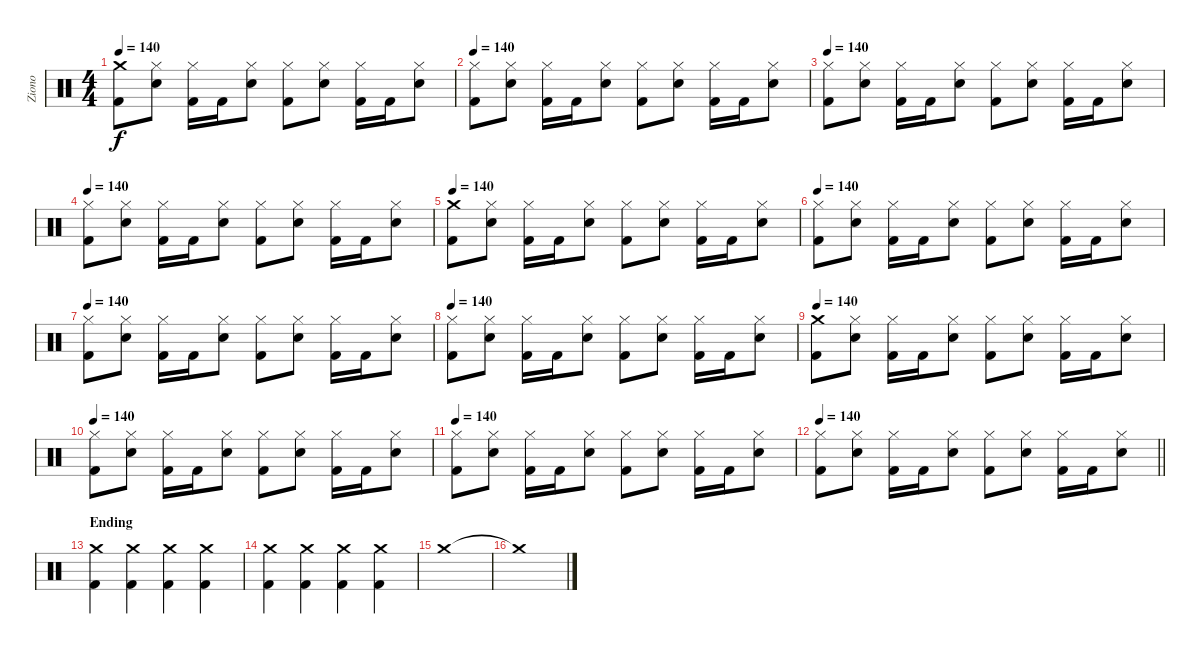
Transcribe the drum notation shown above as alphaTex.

\track ("Ziono" "Ziono") {instrument percussion}
\staff {score}
\articulation defaults
\ts (4 4)
\tempo 140
\clef neutral
\ks c
("Kick (hit) 2" "Crash medium (hit)").8{dy f} ("Hi-Hat (closed)" "Snare (hit) 2").8 ("Hi-Hat (closed)" "Kick (hit) 2").16 "Kick (hit) 2".16 ("Hi-Hat (closed)" "Snare (hit) 2").8 ("Hi-Hat (closed)" "Kick (hit) 2").8 ("Hi-Hat (closed)" "Snare (hit) 2").8 ("Hi-Hat (closed)" "Kick (hit) 2").16 "Kick (hit) 2".16 ("Hi-Hat (closed)" "Snare (hit) 2").8 |
\tempo 140
("Hi-Hat (closed)" "Kick (hit) 2").8 ("Hi-Hat (closed)" "Snare (hit) 2").8 ("Hi-Hat (closed)" "Kick (hit) 2").16 "Kick (hit) 2".16 ("Hi-Hat (closed)" "Snare (hit) 2").8 ("Hi-Hat (closed)" "Kick (hit) 2").8 ("Hi-Hat (closed)" "Snare (hit) 2").8 ("Hi-Hat (closed)" "Kick (hit) 2").16 "Kick (hit) 2".16 ("Hi-Hat (closed)" "Snare (hit) 2").8 |
\tempo 140
("Hi-Hat (closed)" "Kick (hit) 2").8 ("Hi-Hat (closed)" "Snare (hit) 2").8 ("Hi-Hat (closed)" "Kick (hit) 2").16 "Kick (hit) 2".16 ("Hi-Hat (closed)" "Snare (hit) 2").8 ("Hi-Hat (closed)" "Kick (hit) 2").8 ("Hi-Hat (closed)" "Snare (hit) 2").8 ("Hi-Hat (closed)" "Kick (hit) 2").16 "Kick (hit) 2".16 ("Hi-Hat (closed)" "Snare (hit) 2").8 |
\tempo 140
("Hi-Hat (closed)" "Kick (hit) 2").8 ("Hi-Hat (closed)" "Snare (hit) 2").8 ("Hi-Hat (closed)" "Kick (hit) 2").16 "Kick (hit) 2".16 ("Hi-Hat (closed)" "Snare (hit) 2").8 ("Hi-Hat (closed)" "Kick (hit) 2").8 ("Hi-Hat (closed)" "Snare (hit) 2").8 ("Hi-Hat (closed)" "Kick (hit) 2").16 "Kick (hit) 2".16 ("Hi-Hat (closed)" "Snare (hit) 2").8 |
\tempo 140
("Kick (hit) 2" "Crash medium (hit)").8 ("Hi-Hat (closed)" "Snare (hit) 2").8 ("Hi-Hat (closed)" "Kick (hit) 2").16 "Kick (hit) 2".16 ("Hi-Hat (closed)" "Snare (hit) 2").8 ("Hi-Hat (closed)" "Kick (hit) 2").8 ("Hi-Hat (closed)" "Snare (hit) 2").8 ("Hi-Hat (closed)" "Kick (hit) 2").16 "Kick (hit) 2".16 ("Hi-Hat (closed)" "Snare (hit) 2").8 |
\tempo 140
("Hi-Hat (closed)" "Kick (hit) 2").8 ("Hi-Hat (closed)" "Snare (hit) 2").8 ("Hi-Hat (closed)" "Kick (hit) 2").16 "Kick (hit) 2".16 ("Hi-Hat (closed)" "Snare (hit) 2").8 ("Hi-Hat (closed)" "Kick (hit) 2").8 ("Hi-Hat (closed)" "Snare (hit) 2").8 ("Hi-Hat (closed)" "Kick (hit) 2").16 "Kick (hit) 2".16 ("Hi-Hat (closed)" "Snare (hit) 2").8 |
\tempo 140
("Hi-Hat (closed)" "Kick (hit) 2").8 ("Hi-Hat (closed)" "Snare (hit) 2").8 ("Hi-Hat (closed)" "Kick (hit) 2").16 "Kick (hit) 2".16 ("Hi-Hat (closed)" "Snare (hit) 2").8 ("Hi-Hat (closed)" "Kick (hit) 2").8 ("Hi-Hat (closed)" "Snare (hit) 2").8 ("Hi-Hat (closed)" "Kick (hit) 2").16 "Kick (hit) 2".16 ("Hi-Hat (closed)" "Snare (hit) 2").8 |
\tempo 140
("Hi-Hat (closed)" "Kick (hit) 2").8 ("Hi-Hat (closed)" "Snare (hit) 2").8 ("Hi-Hat (closed)" "Kick (hit) 2").16 "Kick (hit) 2".16 ("Hi-Hat (closed)" "Snare (hit) 2").8 ("Hi-Hat (closed)" "Kick (hit) 2").8 ("Hi-Hat (closed)" "Snare (hit) 2").8 ("Hi-Hat (closed)" "Kick (hit) 2").16 "Kick (hit) 2".16 ("Hi-Hat (closed)" "Snare (hit) 2").8 |
\tempo 140
("Kick (hit) 2" "Crash medium (hit)").8 ("Hi-Hat (closed)" "Snare (hit) 2").8 ("Hi-Hat (closed)" "Kick (hit) 2").16 "Kick (hit) 2".16 ("Hi-Hat (closed)" "Snare (hit) 2").8 ("Hi-Hat (closed)" "Kick (hit) 2").8 ("Hi-Hat (closed)" "Snare (hit) 2").8 ("Hi-Hat (closed)" "Kick (hit) 2").16 "Kick (hit) 2".16 ("Hi-Hat (closed)" "Snare (hit) 2").8 |
\tempo 140
("Hi-Hat (closed)" "Kick (hit) 2").8 ("Hi-Hat (closed)" "Snare (hit) 2").8 ("Hi-Hat (closed)" "Kick (hit) 2").16 "Kick (hit) 2".16 ("Hi-Hat (closed)" "Snare (hit) 2").8 ("Hi-Hat (closed)" "Kick (hit) 2").8 ("Hi-Hat (closed)" "Snare (hit) 2").8 ("Hi-Hat (closed)" "Kick (hit) 2").16 "Kick (hit) 2".16 ("Hi-Hat (closed)" "Snare (hit) 2").8 |
\tempo 140
("Hi-Hat (closed)" "Kick (hit) 2").8 ("Hi-Hat (closed)" "Snare (hit) 2").8 ("Hi-Hat (closed)" "Kick (hit) 2").16 "Kick (hit) 2".16 ("Hi-Hat (closed)" "Snare (hit) 2").8 ("Hi-Hat (closed)" "Kick (hit) 2").8 ("Hi-Hat (closed)" "Snare (hit) 2").8 ("Hi-Hat (closed)" "Kick (hit) 2").16 "Kick (hit) 2".16 ("Hi-Hat (closed)" "Snare (hit) 2").8 |
\tempo 140
\barLineRight lightlight
("Hi-Hat (closed)" "Kick (hit) 2").8 ("Hi-Hat (closed)" "Snare (hit) 2").8 ("Hi-Hat (closed)" "Kick (hit) 2").16 "Kick (hit) 2".16 ("Hi-Hat (closed)" "Snare (hit) 2").8 ("Hi-Hat (closed)" "Kick (hit) 2").8 ("Hi-Hat (closed)" "Snare (hit) 2").8 ("Hi-Hat (closed)" "Kick (hit) 2").16 "Kick (hit) 2".16 ("Hi-Hat (closed)" "Snare (hit) 2").8 |
\section ("" "Ending")
("Kick (hit) 2" "Crash medium (hit)").4 ("Kick (hit) 2" "Crash medium (hit)").4 ("Kick (hit) 2" "Crash medium (hit)").4 ("Kick (hit) 2" "Crash medium (hit)").4 |
("Kick (hit) 2" "Crash medium (hit)").4 ("Kick (hit) 2" "Crash medium (hit)").4 ("Kick (hit) 2" "Crash medium (hit)").4 ("Kick (hit) 2" "Crash medium (hit)").4 |
"Crash medium (hit)".1 |
"Crash medium (hit)"{t}.1
